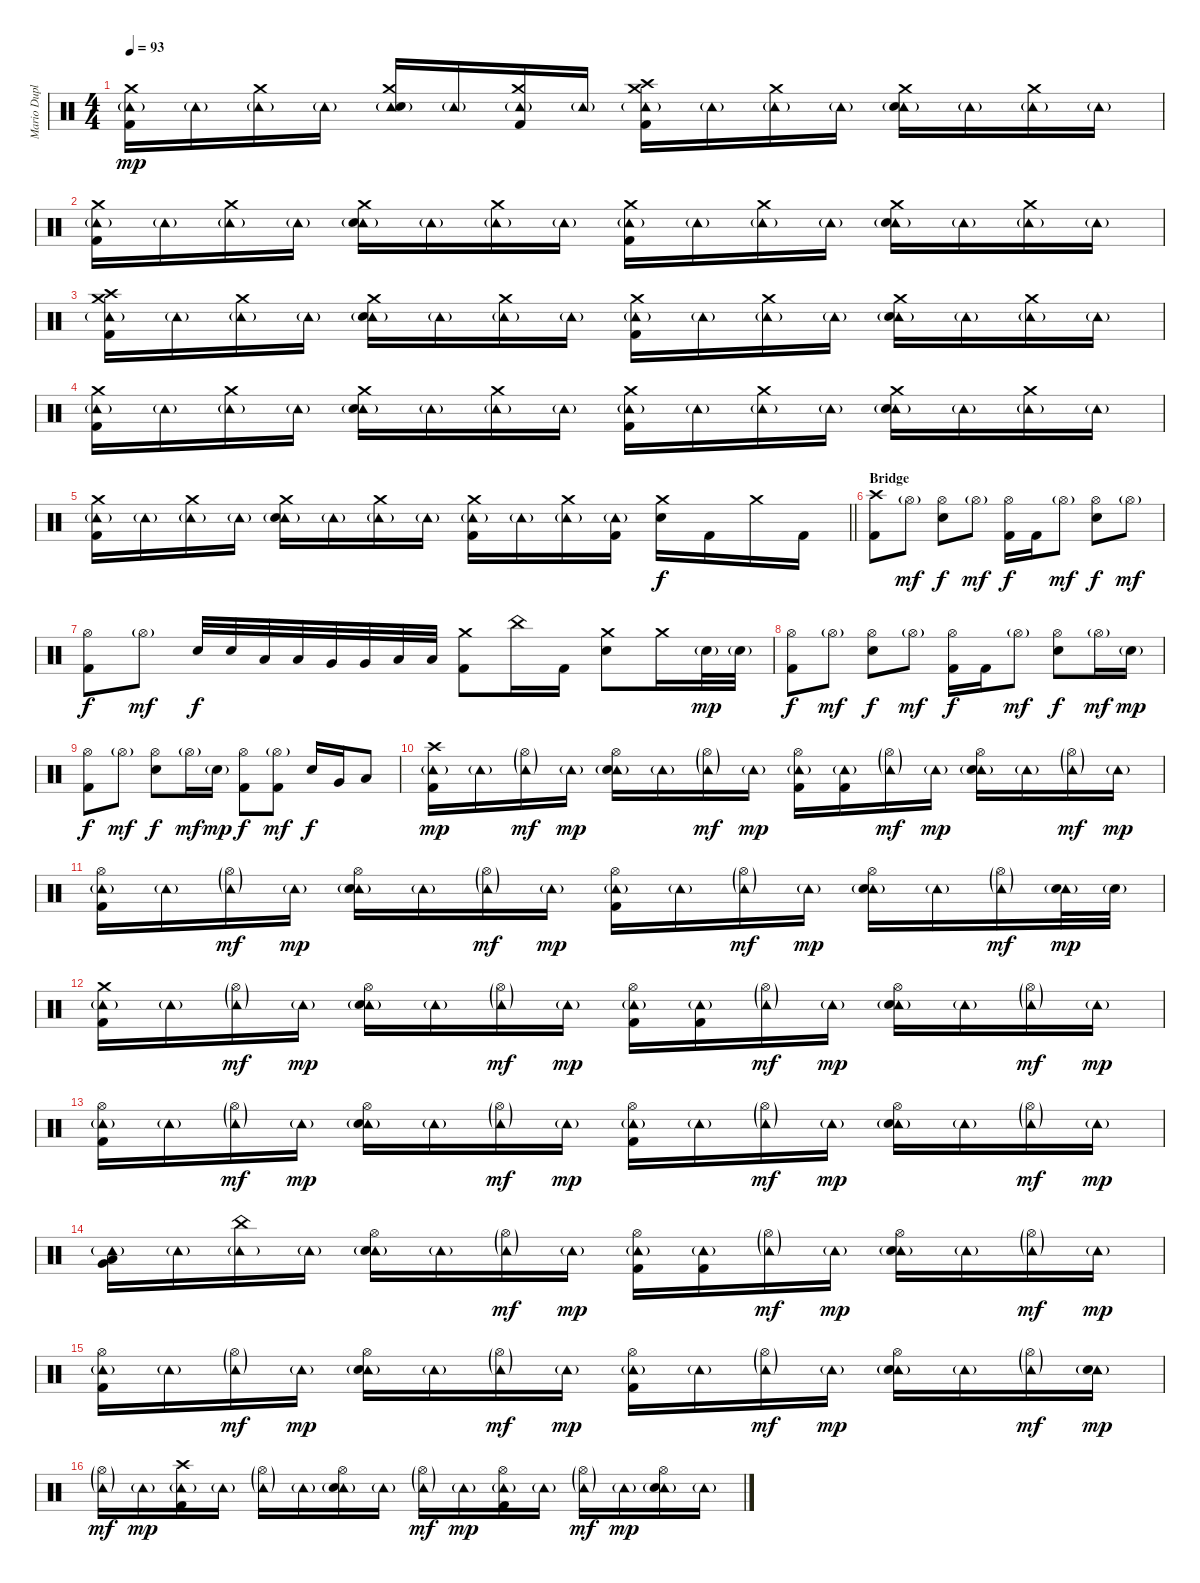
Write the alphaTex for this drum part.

\track ("Mario Duplantier" "Mario Dupl") {instrument percussion}
\staff {score}
\articulation defaults
\ts (4 4)
\tempo 93
\clef neutral
\ks c
("Tambourine (hit)"{g} "Crash medium (hit)" "Kick (hit) 2").16{dy mp} "Tambourine (hit)"{g}.16 ("Tambourine (hit)"{g} "Crash medium (hit)").16 "Tambourine (hit)"{g}.16 ("Tambourine (hit)"{g} "Crash medium (hit)" "Electric Snare (hit)").16 "Tambourine (hit)"{g}.16 ("Tambourine (hit)"{g} "Crash medium (hit)" "Kick (hit) 2").16 "Tambourine (hit)"{g}.16 ("Tambourine (hit)"{g} "Crash high (hit)" "Crash medium (hit)" "Kick (hit) 2").16 "Tambourine (hit)"{g}.16 ("Tambourine (hit)"{g} "Crash medium (hit)").16 "Tambourine (hit)"{g}.16 ("Tambourine (hit)"{g} "Crash medium (hit)" "Electric Snare (hit)").16 "Tambourine (hit)"{g}.16 ("Tambourine (hit)"{g} "Crash medium (hit)").16 "Tambourine (hit)"{g}.16 |
("Tambourine (hit)"{g} "Crash medium (hit)" "Kick (hit) 2").16 "Tambourine (hit)"{g}.16 ("Tambourine (hit)"{g} "Crash medium (hit)").16 "Tambourine (hit)"{g}.16 ("Tambourine (hit)"{g} "Crash medium (hit)" "Electric Snare (hit)").16 "Tambourine (hit)"{g}.16 ("Tambourine (hit)"{g} "Crash medium (hit)").16 "Tambourine (hit)"{g}.16 ("Tambourine (hit)"{g} "Crash medium (hit)" "Kick (hit) 2").16 "Tambourine (hit)"{g}.16 ("Tambourine (hit)"{g} "Crash medium (hit)").16 "Tambourine (hit)"{g}.16 ("Tambourine (hit)"{g} "Crash medium (hit)" "Electric Snare (hit)").16 "Tambourine (hit)"{g}.16 ("Tambourine (hit)"{g} "Crash medium (hit)").16 "Tambourine (hit)"{g}.16 |
("Tambourine (hit)"{g} "Crash high (hit)" "Crash medium (hit)" "Kick (hit) 2").16 "Tambourine (hit)"{g}.16 ("Tambourine (hit)"{g} "Crash medium (hit)").16 "Tambourine (hit)"{g}.16 ("Tambourine (hit)"{g} "Crash medium (hit)" "Electric Snare (hit)").16 "Tambourine (hit)"{g}.16 ("Tambourine (hit)"{g} "Crash medium (hit)").16 "Tambourine (hit)"{g}.16 ("Tambourine (hit)"{g} "Crash medium (hit)" "Kick (hit) 2").16 "Tambourine (hit)"{g}.16 ("Tambourine (hit)"{g} "Crash medium (hit)").16 "Tambourine (hit)"{g}.16 ("Tambourine (hit)"{g} "Crash medium (hit)" "Electric Snare (hit)").16 "Tambourine (hit)"{g}.16 ("Tambourine (hit)"{g} "Crash medium (hit)").16 "Tambourine (hit)"{g}.16 |
("Tambourine (hit)"{g} "Crash medium (hit)" "Kick (hit) 2").16 "Tambourine (hit)"{g}.16 ("Tambourine (hit)"{g} "Crash medium (hit)").16 "Tambourine (hit)"{g}.16 ("Tambourine (hit)"{g} "Crash medium (hit)" "Electric Snare (hit)").16 "Tambourine (hit)"{g}.16 ("Tambourine (hit)"{g} "Crash medium (hit)").16 "Tambourine (hit)"{g}.16 ("Tambourine (hit)"{g} "Crash medium (hit)" "Kick (hit) 2").16 "Tambourine (hit)"{g}.16 ("Tambourine (hit)"{g} "Crash medium (hit)").16 "Tambourine (hit)"{g}.16 ("Tambourine (hit)"{g} "Crash medium (hit)" "Electric Snare (hit)").16 "Tambourine (hit)"{g}.16 ("Tambourine (hit)"{g} "Crash medium (hit)").16 "Tambourine (hit)"{g}.16 |
\barLineRight lightlight
("Tambourine (hit)"{g} "Crash medium (hit)" "Kick (hit) 2").16 "Tambourine (hit)"{g}.16 ("Tambourine (hit)"{g} "Crash medium (hit)").16 "Tambourine (hit)"{g}.16 ("Tambourine (hit)"{g} "Crash medium (hit)" "Electric Snare (hit)").16 "Tambourine (hit)"{g}.16 ("Tambourine (hit)"{g} "Crash medium (hit)").16 "Tambourine (hit)"{g}.16 ("Tambourine (hit)"{g} "Crash medium (hit)" "Kick (hit) 2").16 "Tambourine (hit)"{g}.16 ("Tambourine (hit)"{g} "Crash medium (hit)").16 ("Tambourine (hit)"{g} "Kick (hit) 2").16 ("Crash medium (hit)" "Electric Snare (hit)").16{dy f} "Kick (hit) 2".16 "Crash medium (hit)".16 "Kick (hit) 2".16 |
\section ("" "Bridge")
("Crash high (hit)" "Kick (hit) 2").8 "Hi-Hat (open)"{g}.8{dy mf} ("Hi-Hat (open)" "Electric Snare (hit)").8{dy f} "Hi-Hat (open)"{g}.8{dy mf} ("Hi-Hat (open)" "Kick (hit) 2").16{dy f} "Kick (hit) 2".16 "Hi-Hat (open)"{g}.8{dy mf} ("Hi-Hat (open)" "Electric Snare (hit)").8{dy f} "Hi-Hat (open)"{g}.8{dy mf} |
("Hi-Hat (open)" "Kick (hit) 2").8{dy f} "Hi-Hat (open)"{g}.8{dy mf} "Electric Snare (hit)".32{dy f} "Electric Snare (hit)".32 "Low Tom (hit)".32 "Low Tom (hit)".32 "Very Low Tom (hit)".32 "Very Low Tom (hit)".32 "Low Floor Tom (hit)".32 "Low Floor Tom (hit)".32 ("Crash medium (hit)" "Kick (hit) 2").8 "China (hit)".16 "Kick (hit) 2".16 ("Crash medium (hit)" "Electric Snare (hit)").8 "Crash medium (hit)".16 "Electric Snare (hit)"{g}.32{dy mp} "Electric Snare (hit)"{g}.32 |
("Hi-Hat (open)" "Kick (hit) 2").8{dy f} "Hi-Hat (open)"{g}.8{dy mf} ("Hi-Hat (open)" "Electric Snare (hit)").8{dy f} "Hi-Hat (open)"{g}.8{dy mf} ("Hi-Hat (open)" "Kick (hit) 2").16{dy f} "Kick (hit) 2".16 "Hi-Hat (open)"{g}.8{dy mf} ("Hi-Hat (open)" "Electric Snare (hit)").8{dy f} "Hi-Hat (open)"{g}.16{dy mf} "Electric Snare (hit)"{g}.16{dy mp} |
("Hi-Hat (open)" "Kick (hit) 2").8{dy f} "Hi-Hat (open)"{g}.8{dy mf} ("Hi-Hat (open)" "Electric Snare (hit)").8{dy f} "Hi-Hat (open)"{g}.16{dy mf} "Electric Snare (hit)"{g}.16{dy mp} ("Hi-Hat (open)" "Kick (hit) 2").8{dy f} ("Hi-Hat (open)"{g} "Kick (hit) 2").8{dy mf} "Electric Snare (hit)".16{dy f} "Very Low Tom (hit)".16 "Low Floor Tom (hit)".8 |
("Tambourine (hit)"{g} "Crash high (hit)" "Kick (hit) 2").16{dy mp} "Tambourine (hit)"{g}.16 ("Tambourine (hit)"{g} "Hi-Hat (open)"{g}).16{dy mf} "Tambourine (hit)"{g}.16{dy mp} ("Tambourine (hit)"{g} "Hi-Hat (open)" "Electric Snare (hit)").16 "Tambourine (hit)"{g}.16 ("Tambourine (hit)"{g} "Hi-Hat (open)"{g}).16{dy mf} "Tambourine (hit)"{g}.16{dy mp} ("Tambourine (hit)"{g} "Hi-Hat (open)" "Kick (hit) 2").16 ("Tambourine (hit)"{g} "Kick (hit) 2").16 ("Tambourine (hit)"{g} "Hi-Hat (open)"{g}).16{dy mf} "Tambourine (hit)"{g}.16{dy mp} ("Tambourine (hit)"{g} "Hi-Hat (open)" "Electric Snare (hit)").16 "Tambourine (hit)"{g}.16 ("Tambourine (hit)"{g} "Hi-Hat (open)"{g}).16{dy mf} "Tambourine (hit)"{g}.16{dy mp} |
("Tambourine (hit)"{g} "Hi-Hat (open)" "Kick (hit) 2").16 "Tambourine (hit)"{g}.16 ("Tambourine (hit)"{g} "Hi-Hat (open)"{g}).16{dy mf} "Tambourine (hit)"{g}.16{dy mp} ("Tambourine (hit)"{g} "Hi-Hat (open)" "Electric Snare (hit)").16 "Tambourine (hit)"{g}.16 ("Tambourine (hit)"{g} "Hi-Hat (open)"{g}).16{dy mf} "Tambourine (hit)"{g}.16{dy mp} ("Tambourine (hit)"{g} "Hi-Hat (open)" "Kick (hit) 2").16 "Tambourine (hit)"{g}.16 ("Tambourine (hit)"{g} "Hi-Hat (open)"{g}).16{dy mf} "Tambourine (hit)"{g}.16{dy mp} ("Tambourine (hit)"{g} "Hi-Hat (open)" "Electric Snare (hit)").16 "Tambourine (hit)"{g}.16 ("Tambourine (hit)"{g} "Hi-Hat (open)"{g}).16{dy mf} ("Tambourine (hit)"{g} "Electric Snare (hit)"{g}).32{dy mp} "Electric Snare (hit)"{g}.32 |
("Tambourine (hit)"{g} "Crash medium (hit)" "Kick (hit) 2").16 "Tambourine (hit)"{g}.16 ("Tambourine (hit)"{g} "Hi-Hat (open)"{g}).16{dy mf} "Tambourine (hit)"{g}.16{dy mp} ("Tambourine (hit)"{g} "Hi-Hat (open)" "Electric Snare (hit)").16 "Tambourine (hit)"{g}.16 ("Tambourine (hit)"{g} "Hi-Hat (open)"{g}).16{dy mf} "Tambourine (hit)"{g}.16{dy mp} ("Tambourine (hit)"{g} "Hi-Hat (open)" "Kick (hit) 2").16 ("Tambourine (hit)"{g} "Kick (hit) 2").16 ("Tambourine (hit)"{g} "Hi-Hat (open)"{g}).16{dy mf} "Tambourine (hit)"{g}.16{dy mp} ("Tambourine (hit)"{g} "Hi-Hat (open)" "Electric Snare (hit)").16 "Tambourine (hit)"{g}.16 ("Tambourine (hit)"{g} "Hi-Hat (open)"{g}).16{dy mf} "Tambourine (hit)"{g}.16{dy mp} |
("Tambourine (hit)"{g} "Hi-Hat (open)" "Kick (hit) 2").16 "Tambourine (hit)"{g}.16 ("Tambourine (hit)"{g} "Hi-Hat (open)"{g}).16{dy mf} "Tambourine (hit)"{g}.16{dy mp} ("Tambourine (hit)"{g} "Hi-Hat (open)" "Electric Snare (hit)").16 "Tambourine (hit)"{g}.16 ("Tambourine (hit)"{g} "Hi-Hat (open)"{g}).16{dy mf} "Tambourine (hit)"{g}.16{dy mp} ("Tambourine (hit)"{g} "Hi-Hat (open)" "Kick (hit) 2").16 "Tambourine (hit)"{g}.16 ("Tambourine (hit)"{g} "Hi-Hat (open)"{g}).16{dy mf} "Tambourine (hit)"{g}.16{dy mp} ("Tambourine (hit)"{g} "Hi-Hat (open)" "Electric Snare (hit)").16 "Tambourine (hit)"{g}.16 ("Tambourine (hit)"{g} "Hi-Hat (open)"{g}).16{dy mf} "Tambourine (hit)"{g}.16{dy mp} |
("Tambourine (hit)"{g} "Very Low Tom (hit)" "Low Floor Tom (hit)").16 "Tambourine (hit)"{g}.16 ("Tambourine (hit)"{g} "China (hit)").16 "Tambourine (hit)"{g}.16 ("Tambourine (hit)"{g} "Hi-Hat (open)" "Electric Snare (hit)").16 "Tambourine (hit)"{g}.16 ("Tambourine (hit)"{g} "Hi-Hat (open)"{g}).16{dy mf} "Tambourine (hit)"{g}.16{dy mp} ("Tambourine (hit)"{g} "Hi-Hat (open)" "Kick (hit) 2").16 ("Tambourine (hit)"{g} "Kick (hit) 2").16 ("Tambourine (hit)"{g} "Hi-Hat (open)"{g}).16{dy mf} "Tambourine (hit)"{g}.16{dy mp} ("Tambourine (hit)"{g} "Hi-Hat (open)" "Electric Snare (hit)").16 "Tambourine (hit)"{g}.16 ("Tambourine (hit)"{g} "Hi-Hat (open)"{g}).16{dy mf} "Tambourine (hit)"{g}.16{dy mp} |
("Tambourine (hit)"{g} "Hi-Hat (open)" "Kick (hit) 2").16 "Tambourine (hit)"{g}.16 ("Tambourine (hit)"{g} "Hi-Hat (open)"{g}).16{dy mf} "Tambourine (hit)"{g}.16{dy mp} ("Tambourine (hit)"{g} "Hi-Hat (open)" "Electric Snare (hit)").16 "Tambourine (hit)"{g}.16 ("Tambourine (hit)"{g} "Hi-Hat (open)"{g}).16{dy mf} "Tambourine (hit)"{g}.16{dy mp} ("Tambourine (hit)"{g} "Hi-Hat (open)" "Kick (hit) 2").16 "Tambourine (hit)"{g}.16 ("Tambourine (hit)"{g} "Hi-Hat (open)"{g}).16{dy mf} "Tambourine (hit)"{g}.16{dy mp} ("Tambourine (hit)"{g} "Hi-Hat (open)" "Electric Snare (hit)").16 "Tambourine (hit)"{g}.16 ("Tambourine (hit)"{g} "Hi-Hat (open)"{g}).16{dy mf} ("Tambourine (hit)"{g} "Electric Snare (hit)"{g}).16{dy mp} |
("Tambourine (hit)"{g} "Hi-Hat (open)"{g}).16{dy mf} "Tambourine (hit)"{g}.16{dy mp} ("Tambourine (hit)"{g} "Crash high (hit)" "Kick (hit) 2").16 "Tambourine (hit)"{g}.16 ("Tambourine (hit)"{g} "Hi-Hat (open)"{g}).16 "Tambourine (hit)"{g}.16 ("Tambourine (hit)"{g} "Hi-Hat (open)" "Electric Snare (hit)").16 "Tambourine (hit)"{g}.16 ("Tambourine (hit)"{g} "Hi-Hat (open)"{g}).16{dy mf} "Tambourine (hit)"{g}.16{dy mp} ("Tambourine (hit)"{g} "Hi-Hat (open)" "Kick (hit) 2").16 "Tambourine (hit)"{g}.16 ("Tambourine (hit)"{g} "Hi-Hat (open)"{g}).16{dy mf} "Tambourine (hit)"{g}.16{dy mp} ("Tambourine (hit)"{g} "Hi-Hat (open)" "Electric Snare (hit)").16 "Tambourine (hit)"{g}.16
